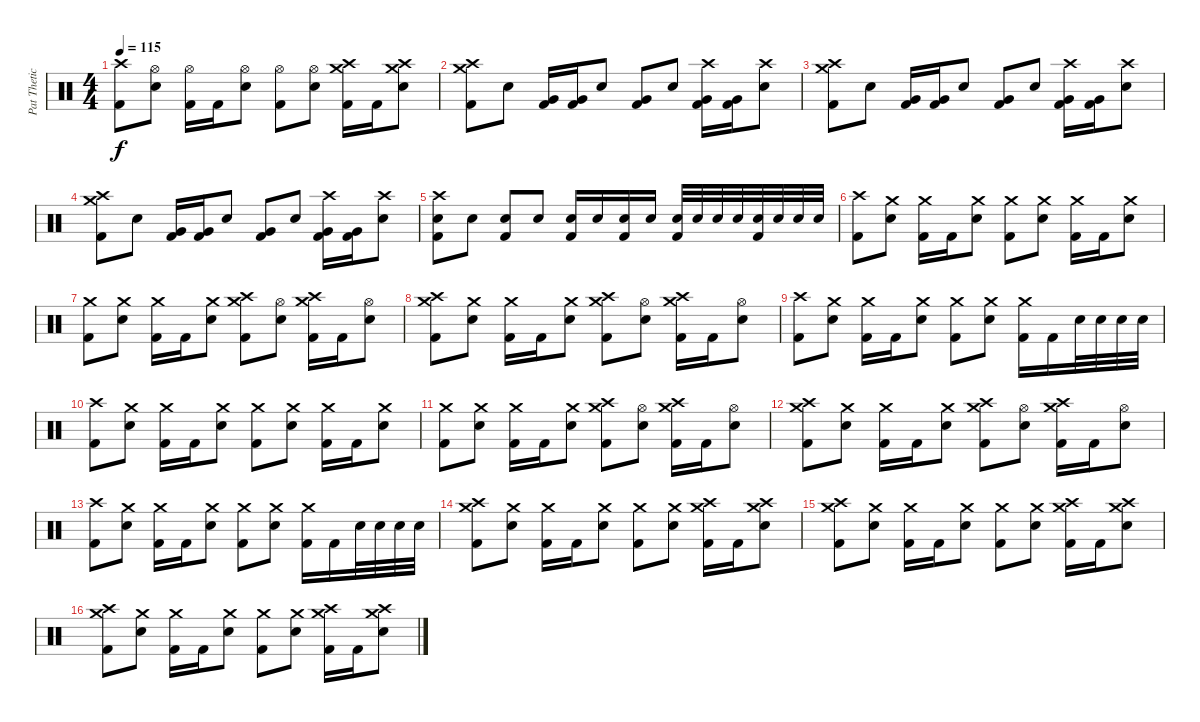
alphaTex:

\track ("Pat Thetic" "Pat Thetic") {instrument percussion}
\staff {score}
\articulation defaults
\ts (4 4)
\tempo 115
\clef neutral
\ks c
("Crash high (hit)" "Kick (hit) 2").8{dy f} ("Hi-Hat (open)" "Electric Snare (hit)").8 ("Hi-Hat (open)" "Kick (hit) 2").16 "Kick (hit) 2".16 ("Hi-Hat (open)" "Electric Snare (hit)").8 ("Hi-Hat (open)" "Kick (hit) 2").8 ("Hi-Hat (open)" "Electric Snare (hit)").8 ("Crash high (hit)" "Crash medium (hit)" "Kick (hit) 2").16 "Kick (hit) 2".16 ("Crash high (hit)" "Crash medium (hit)" "Electric Snare (hit)").8 |
("Crash high (hit)" "Crash medium (hit)" "Kick (hit) 2").8 "Electric Snare (hit)".8 ("Very Low Tom (hit)" "Kick (hit) 2").16 ("Very Low Tom (hit)" "Kick (hit) 2").16 "Electric Snare (hit)".8 ("Very Low Tom (hit)" "Kick (hit) 2").8 "Electric Snare (hit)".8 ("Crash high (hit)" "Very Low Tom (hit)" "Kick (hit) 2").16 ("Very Low Tom (hit)" "Kick (hit) 2").16 ("Crash high (hit)" "Electric Snare (hit)").8 |
("Crash high (hit)" "Crash medium (hit)" "Kick (hit) 2").8 "Electric Snare (hit)".8 ("Very Low Tom (hit)" "Kick (hit) 2").16 ("Very Low Tom (hit)" "Kick (hit) 2").16 "Electric Snare (hit)".8 ("Very Low Tom (hit)" "Kick (hit) 2").8 "Electric Snare (hit)".8 ("Crash high (hit)" "Very Low Tom (hit)" "Kick (hit) 2").16 ("Very Low Tom (hit)" "Kick (hit) 2").16 ("Crash high (hit)" "Electric Snare (hit)").8 |
("Crash high (hit)" "Crash medium (hit)" "Kick (hit) 2").8 "Electric Snare (hit)".8 ("Very Low Tom (hit)" "Kick (hit) 2").16 ("Very Low Tom (hit)" "Kick (hit) 2").16 "Electric Snare (hit)".8 ("Very Low Tom (hit)" "Kick (hit) 2").8 "Electric Snare (hit)".8 ("Crash high (hit)" "Very Low Tom (hit)" "Kick (hit) 2").16 ("Very Low Tom (hit)" "Kick (hit) 2").16 ("Crash high (hit)" "Electric Snare (hit)").8 |
("Crash high (hit)" "Electric Snare (hit)" "Kick (hit) 2").8 "Electric Snare (hit)".8 ("Electric Snare (hit)" "Kick (hit) 2").8 "Electric Snare (hit)".8 ("Electric Snare (hit)" "Kick (hit) 2").16 "Electric Snare (hit)".16 ("Electric Snare (hit)" "Kick (hit) 2").16 "Electric Snare (hit)".16 ("Electric Snare (hit)" "Kick (hit) 2").32 "Electric Snare (hit)".32 "Electric Snare (hit)".32 "Electric Snare (hit)".32 ("Electric Snare (hit)" "Kick (hit) 2").32 "Electric Snare (hit)".32 "Electric Snare (hit)".32 "Electric Snare (hit)".32 |
("Crash high (hit)" "Kick (hit) 2").8 ("Crash medium (hit)" "Electric Snare (hit)").8 ("Crash medium (hit)" "Kick (hit) 2").16 "Kick (hit) 2".16 ("Crash medium (hit)" "Electric Snare (hit)").8 ("Crash medium (hit)" "Kick (hit) 2").8 ("Crash medium (hit)" "Electric Snare (hit)").8 ("Crash medium (hit)" "Kick (hit) 2").16 "Kick (hit) 2".16 ("Crash medium (hit)" "Electric Snare (hit)").8 |
("Crash medium (hit)" "Kick (hit) 2").8 ("Crash medium (hit)" "Electric Snare (hit)").8 ("Crash medium (hit)" "Kick (hit) 2").16 "Kick (hit) 2".16 ("Crash medium (hit)" "Electric Snare (hit)").8 ("Crash high (hit)" "Crash medium (hit)" "Kick (hit) 2").8 ("Hi-Hat (open)" "Electric Snare (hit)").8 ("Crash high (hit)" "Crash medium (hit)" "Kick (hit) 2").16 "Kick (hit) 2".16 ("Hi-Hat (open)" "Electric Snare (hit)").8 |
("Crash high (hit)" "Crash medium (hit)" "Kick (hit) 2").8 ("Crash medium (hit)" "Electric Snare (hit)").8 ("Crash medium (hit)" "Kick (hit) 2").16 "Kick (hit) 2".16 ("Crash medium (hit)" "Electric Snare (hit)").8 ("Crash high (hit)" "Crash medium (hit)" "Kick (hit) 2").8 ("Hi-Hat (open)" "Electric Snare (hit)").8 ("Crash high (hit)" "Crash medium (hit)" "Kick (hit) 2").16 "Kick (hit) 2".16 ("Hi-Hat (open)" "Electric Snare (hit)").8 |
("Crash high (hit)" "Kick (hit) 2").8 ("Crash medium (hit)" "Electric Snare (hit)").8 ("Crash medium (hit)" "Kick (hit) 2").16 "Kick (hit) 2".16 ("Crash medium (hit)" "Electric Snare (hit)").8 ("Crash medium (hit)" "Kick (hit) 2").8 ("Crash medium (hit)" "Electric Snare (hit)").8 ("Crash medium (hit)" "Kick (hit) 2").16 "Kick (hit) 2".16 "Electric Snare (hit)".32 "Electric Snare (hit)".32 "Electric Snare (hit)".32 "Electric Snare (hit)".32 |
("Crash high (hit)" "Kick (hit) 2").8 ("Crash medium (hit)" "Electric Snare (hit)").8 ("Crash medium (hit)" "Kick (hit) 2").16 "Kick (hit) 2".16 ("Crash medium (hit)" "Electric Snare (hit)").8 ("Crash medium (hit)" "Kick (hit) 2").8 ("Crash medium (hit)" "Electric Snare (hit)").8 ("Crash medium (hit)" "Kick (hit) 2").16 "Kick (hit) 2".16 ("Crash medium (hit)" "Electric Snare (hit)").8 |
("Crash medium (hit)" "Kick (hit) 2").8 ("Crash medium (hit)" "Electric Snare (hit)").8 ("Crash medium (hit)" "Kick (hit) 2").16 "Kick (hit) 2".16 ("Crash medium (hit)" "Electric Snare (hit)").8 ("Crash high (hit)" "Crash medium (hit)" "Kick (hit) 2").8 ("Hi-Hat (open)" "Electric Snare (hit)").8 ("Crash high (hit)" "Crash medium (hit)" "Kick (hit) 2").16 "Kick (hit) 2".16 ("Hi-Hat (open)" "Electric Snare (hit)").8 |
("Crash high (hit)" "Crash medium (hit)" "Kick (hit) 2").8 ("Crash medium (hit)" "Electric Snare (hit)").8 ("Crash medium (hit)" "Kick (hit) 2").16 "Kick (hit) 2".16 ("Crash medium (hit)" "Electric Snare (hit)").8 ("Crash high (hit)" "Crash medium (hit)" "Kick (hit) 2").8 ("Hi-Hat (open)" "Electric Snare (hit)").8 ("Crash high (hit)" "Crash medium (hit)" "Kick (hit) 2").16 "Kick (hit) 2".16 ("Hi-Hat (open)" "Electric Snare (hit)").8 |
("Crash high (hit)" "Kick (hit) 2").8 ("Crash medium (hit)" "Electric Snare (hit)").8 ("Crash medium (hit)" "Kick (hit) 2").16 "Kick (hit) 2".16 ("Crash medium (hit)" "Electric Snare (hit)").8 ("Crash medium (hit)" "Kick (hit) 2").8 ("Crash medium (hit)" "Electric Snare (hit)").8 ("Crash medium (hit)" "Kick (hit) 2").16 "Kick (hit) 2".16 "Electric Snare (hit)".32 "Electric Snare (hit)".32 "Electric Snare (hit)".32 "Electric Snare (hit)".32 |
("Crash high (hit)" "Crash medium (hit)" "Kick (hit) 2").8 ("Crash medium (hit)" "Electric Snare (hit)").8 ("Crash medium (hit)" "Kick (hit) 2").16 "Kick (hit) 2".16 ("Crash medium (hit)" "Electric Snare (hit)").8 ("Crash medium (hit)" "Kick (hit) 2").8 ("Crash medium (hit)" "Electric Snare (hit)").8 ("Crash high (hit)" "Crash medium (hit)" "Kick (hit) 2").16 "Kick (hit) 2".16 ("Crash high (hit)" "Crash medium (hit)" "Electric Snare (hit)").8 |
("Crash high (hit)" "Crash medium (hit)" "Kick (hit) 2").8 ("Crash medium (hit)" "Electric Snare (hit)").8 ("Crash medium (hit)" "Kick (hit) 2").16 "Kick (hit) 2".16 ("Crash medium (hit)" "Electric Snare (hit)").8 ("Crash medium (hit)" "Kick (hit) 2").8 ("Crash medium (hit)" "Electric Snare (hit)").8 ("Crash high (hit)" "Crash medium (hit)" "Kick (hit) 2").16 "Kick (hit) 2".16 ("Crash high (hit)" "Crash medium (hit)" "Electric Snare (hit)").8 |
("Crash high (hit)" "Crash medium (hit)" "Kick (hit) 2").8 ("Crash medium (hit)" "Electric Snare (hit)").8 ("Crash medium (hit)" "Kick (hit) 2").16 "Kick (hit) 2".16 ("Crash medium (hit)" "Electric Snare (hit)").8 ("Crash medium (hit)" "Kick (hit) 2").8 ("Crash medium (hit)" "Electric Snare (hit)").8 ("Crash high (hit)" "Crash medium (hit)" "Kick (hit) 2").16 "Kick (hit) 2".16 ("Crash high (hit)" "Crash medium (hit)" "Electric Snare (hit)").8
